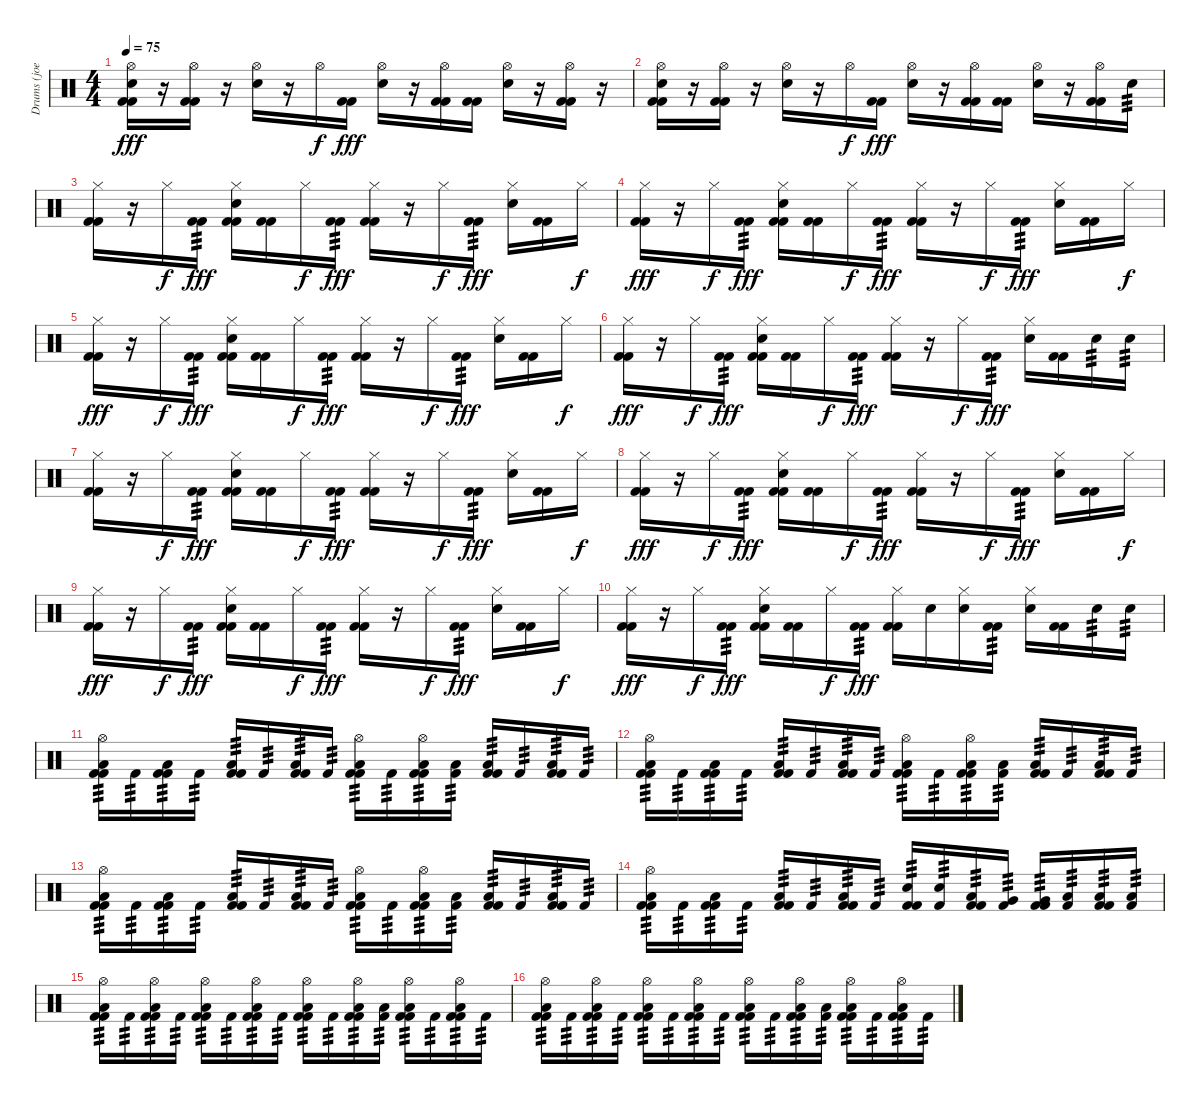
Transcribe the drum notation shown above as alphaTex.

\track ("Drums (joey)" "Drums (joe") {instrument percussion}
\staff {score}
\articulation defaults
\ts (4 4)
\tempo 75
\clef neutral
\ks c
("Hi-Hat (open)" "Electric Snare (hit)" "Kick (hit) 2" "Kick (hit) 2").16{dy fff} r.16 ("Hi-Hat (open)" "Kick (hit) 2" "Kick (hit) 2").16 r.16 ("Hi-Hat (open)" "Electric Snare (hit)").16 r.16 "Hi-Hat (open)".16{dy f} ("Kick (hit) 2" "Kick (hit) 2").16{dy fff} ("Hi-Hat (open)" "Electric Snare (hit)").16 r.16 ("Hi-Hat (open)" "Kick (hit) 2" "Kick (hit) 2").16 ("Kick (hit) 2" "Kick (hit) 2").16 ("Hi-Hat (open)" "Electric Snare (hit)").16 r.16 ("Hi-Hat (open)" "Kick (hit) 2" "Kick (hit) 2").16 r.16 |
("Hi-Hat (open)" "Electric Snare (hit)" "Kick (hit) 2" "Kick (hit) 2").16 r.16 ("Hi-Hat (open)" "Kick (hit) 2" "Kick (hit) 2").16 r.16 ("Hi-Hat (open)" "Electric Snare (hit)").16 r.16 "Hi-Hat (open)".16{dy f} ("Kick (hit) 2" "Kick (hit) 2").16{dy fff} ("Hi-Hat (open)" "Electric Snare (hit)").16 r.16 ("Hi-Hat (open)" "Kick (hit) 2" "Kick (hit) 2").16 ("Kick (hit) 2" "Kick (hit) 2").16 ("Hi-Hat (open)" "Electric Snare (hit)").16 r.16 ("Hi-Hat (open)" "Kick (hit) 2" "Kick (hit) 2").16 "Electric Snare (hit)".16{tp 3} |
("Hi-Hat (closed)" "Kick (hit) 2" "Kick (hit) 2").16 r.16 "Hi-Hat (closed)".16{dy f} ("Kick (hit) 2" "Kick (hit) 2").16{tp 3 dy fff} ("Hi-Hat (closed)" "Electric Snare (hit)" "Kick (hit) 2" "Kick (hit) 2").16 ("Kick (hit) 2" "Kick (hit) 2").16 "Hi-Hat (closed)".16{dy f} ("Kick (hit) 2" "Kick (hit) 2").16{tp 3 dy fff} ("Hi-Hat (closed)" "Kick (hit) 2" "Kick (hit) 2").16 r.16 "Hi-Hat (closed)".16{dy f} ("Kick (hit) 2" "Kick (hit) 2").16{tp 3 dy fff} ("Hi-Hat (closed)" "Electric Snare (hit)").16 ("Kick (hit) 2" "Kick (hit) 2").16 "Hi-Hat (closed)".16{dy f} |
("Hi-Hat (closed)" "Kick (hit) 2" "Kick (hit) 2").16{dy fff} r.16 "Hi-Hat (closed)".16{dy f} ("Kick (hit) 2" "Kick (hit) 2").16{tp 3 dy fff} ("Hi-Hat (closed)" "Electric Snare (hit)" "Kick (hit) 2" "Kick (hit) 2").16 ("Kick (hit) 2" "Kick (hit) 2").16 "Hi-Hat (closed)".16{dy f} ("Kick (hit) 2" "Kick (hit) 2").16{tp 3 dy fff} ("Hi-Hat (closed)" "Kick (hit) 2" "Kick (hit) 2").16 r.16 "Hi-Hat (closed)".16{dy f} ("Kick (hit) 2" "Kick (hit) 2").16{tp 3 dy fff} ("Hi-Hat (closed)" "Electric Snare (hit)").16 ("Kick (hit) 2" "Kick (hit) 2").16 "Hi-Hat (closed)".16{dy f} |
("Hi-Hat (closed)" "Kick (hit) 2" "Kick (hit) 2").16{dy fff} r.16 "Hi-Hat (closed)".16{dy f} ("Kick (hit) 2" "Kick (hit) 2").16{tp 3 dy fff} ("Hi-Hat (closed)" "Electric Snare (hit)" "Kick (hit) 2" "Kick (hit) 2").16 ("Kick (hit) 2" "Kick (hit) 2").16 "Hi-Hat (closed)".16{dy f} ("Kick (hit) 2" "Kick (hit) 2").16{tp 3 dy fff} ("Hi-Hat (closed)" "Kick (hit) 2" "Kick (hit) 2").16 r.16 "Hi-Hat (closed)".16{dy f} ("Kick (hit) 2" "Kick (hit) 2").16{tp 3 dy fff} ("Hi-Hat (closed)" "Electric Snare (hit)").16 ("Kick (hit) 2" "Kick (hit) 2").16 "Hi-Hat (closed)".16{dy f} |
("Hi-Hat (closed)" "Kick (hit) 2" "Kick (hit) 2").16{dy fff} r.16 "Hi-Hat (closed)".16{dy f} ("Kick (hit) 2" "Kick (hit) 2").16{tp 3 dy fff} ("Hi-Hat (closed)" "Electric Snare (hit)" "Kick (hit) 2" "Kick (hit) 2").16 ("Kick (hit) 2" "Kick (hit) 2").16 "Hi-Hat (closed)".16{dy f} ("Kick (hit) 2" "Kick (hit) 2").16{tp 3 dy fff} ("Hi-Hat (closed)" "Kick (hit) 2" "Kick (hit) 2").16 r.16 "Hi-Hat (closed)".16{dy f} ("Kick (hit) 2" "Kick (hit) 2").16{tp 3 dy fff} ("Hi-Hat (closed)" "Electric Snare (hit)").16 ("Kick (hit) 2" "Kick (hit) 2").16 "Electric Snare (hit)".16{tp 3} "Electric Snare (hit)".16{tp 3} |
("Hi-Hat (closed)" "Kick (hit) 2" "Kick (hit) 2").16 r.16 "Hi-Hat (closed)".16{dy f} ("Kick (hit) 2" "Kick (hit) 2").16{tp 3 dy fff} ("Hi-Hat (closed)" "Electric Snare (hit)" "Kick (hit) 2" "Kick (hit) 2").16 ("Kick (hit) 2" "Kick (hit) 2").16 "Hi-Hat (closed)".16{dy f} ("Kick (hit) 2" "Kick (hit) 2").16{tp 3 dy fff} ("Hi-Hat (closed)" "Kick (hit) 2" "Kick (hit) 2").16 r.16 "Hi-Hat (closed)".16{dy f} ("Kick (hit) 2" "Kick (hit) 2").16{tp 3 dy fff} ("Hi-Hat (closed)" "Electric Snare (hit)").16 ("Kick (hit) 2" "Kick (hit) 2").16 "Hi-Hat (closed)".16{dy f} |
("Hi-Hat (closed)" "Kick (hit) 2" "Kick (hit) 2").16{dy fff} r.16 "Hi-Hat (closed)".16{dy f} ("Kick (hit) 2" "Kick (hit) 2").16{tp 3 dy fff} ("Hi-Hat (closed)" "Electric Snare (hit)" "Kick (hit) 2" "Kick (hit) 2").16 ("Kick (hit) 2" "Kick (hit) 2").16 "Hi-Hat (closed)".16{dy f} ("Kick (hit) 2" "Kick (hit) 2").16{tp 3 dy fff} ("Hi-Hat (closed)" "Kick (hit) 2" "Kick (hit) 2").16 r.16 "Hi-Hat (closed)".16{dy f} ("Kick (hit) 2" "Kick (hit) 2").16{tp 3 dy fff} ("Hi-Hat (closed)" "Electric Snare (hit)").16 ("Kick (hit) 2" "Kick (hit) 2").16 "Hi-Hat (closed)".16{dy f} |
("Hi-Hat (closed)" "Kick (hit) 2" "Kick (hit) 2").16{dy fff} r.16 "Hi-Hat (closed)".16{dy f} ("Kick (hit) 2" "Kick (hit) 2").16{tp 3 dy fff} ("Hi-Hat (closed)" "Electric Snare (hit)" "Kick (hit) 2" "Kick (hit) 2").16 ("Kick (hit) 2" "Kick (hit) 2").16 "Hi-Hat (closed)".16{dy f} ("Kick (hit) 2" "Kick (hit) 2").16{tp 3 dy fff} ("Hi-Hat (closed)" "Kick (hit) 2" "Kick (hit) 2").16 r.16 "Hi-Hat (closed)".16{dy f} ("Kick (hit) 2" "Kick (hit) 2").16{tp 3 dy fff} ("Hi-Hat (closed)" "Electric Snare (hit)").16 ("Kick (hit) 2" "Kick (hit) 2").16 "Hi-Hat (closed)".16{dy f} |
("Hi-Hat (closed)" "Kick (hit) 2" "Kick (hit) 2").16{dy fff} r.16 "Hi-Hat (closed)".16{dy f} ("Kick (hit) 2" "Kick (hit) 2").16{tp 3 dy fff} ("Hi-Hat (closed)" "Electric Snare (hit)" "Kick (hit) 2" "Kick (hit) 2").16 ("Kick (hit) 2" "Kick (hit) 2").16 "Hi-Hat (closed)".16{dy f} ("Kick (hit) 2" "Kick (hit) 2").16{tp 3 dy fff} ("Hi-Hat (closed)" "Kick (hit) 2" "Kick (hit) 2").16 "Electric Snare (hit)".16 ("Hi-Hat (closed)" "Electric Snare (hit)").16 ("Kick (hit) 2" "Kick (hit) 2").16{tp 3} ("Hi-Hat (closed)" "Electric Snare (hit)").16 ("Kick (hit) 2" "Kick (hit) 2").16 "Electric Snare (hit)".16{tp 3} "Electric Snare (hit)".16{tp 3} |
("Hi-Hat (open)" "Low Floor Tom (hit)" "Kick (hit) 2" "Kick (hit) 2").16{tp 3} "Kick (hit) 2".16{tp 3} ("Low Floor Tom (hit)" "Kick (hit) 2" "Kick (hit) 2").16{tp 3} "Kick (hit) 2".16{tp 3} ("Low Floor Tom (hit)" "Kick (hit) 2" "Kick (hit) 2").16{tp 3} "Kick (hit) 2".16{tp 3} ("Low Floor Tom (hit)" "Kick (hit) 2" "Kick (hit) 2").16{tp 3} "Kick (hit) 2".16{tp 3} ("Hi-Hat (open)" "Low Floor Tom (hit)" "Kick (hit) 2" "Kick (hit) 2").16{tp 3} "Kick (hit) 2".16{tp 3} ("Hi-Hat (open)" "Low Floor Tom (hit)" "Kick (hit) 2" "Kick (hit) 2").16{tp 3} ("Low Floor Tom (hit)" "Kick (hit) 2").16{tp 3} ("Low Floor Tom (hit)" "Kick (hit) 2" "Kick (hit) 2").16{tp 3} "Kick (hit) 2".16{tp 3} ("Low Floor Tom (hit)" "Kick (hit) 2" "Kick (hit) 2").16{tp 3} "Kick (hit) 2".16{tp 3} |
("Hi-Hat (open)" "Low Floor Tom (hit)" "Kick (hit) 2" "Kick (hit) 2").16{tp 3} "Kick (hit) 2".16{tp 3} ("Low Floor Tom (hit)" "Kick (hit) 2" "Kick (hit) 2").16{tp 3} "Kick (hit) 2".16{tp 3} ("Low Floor Tom (hit)" "Kick (hit) 2" "Kick (hit) 2").16{tp 3} "Kick (hit) 2".16{tp 3} ("Low Floor Tom (hit)" "Kick (hit) 2" "Kick (hit) 2").16{tp 3} "Kick (hit) 2".16{tp 3} ("Hi-Hat (open)" "Low Floor Tom (hit)" "Kick (hit) 2" "Kick (hit) 2").16{tp 3} "Kick (hit) 2".16{tp 3} ("Hi-Hat (open)" "Low Floor Tom (hit)" "Kick (hit) 2" "Kick (hit) 2").16{tp 3} ("Low Floor Tom (hit)" "Kick (hit) 2").16{tp 3} ("Low Floor Tom (hit)" "Kick (hit) 2" "Kick (hit) 2").16{tp 3} "Kick (hit) 2".16{tp 3} ("Low Floor Tom (hit)" "Kick (hit) 2" "Kick (hit) 2").16{tp 3} "Kick (hit) 2".16{tp 3} |
("Hi-Hat (open)" "Low Floor Tom (hit)" "Kick (hit) 2" "Kick (hit) 2").16{tp 3} "Kick (hit) 2".16{tp 3} ("Low Floor Tom (hit)" "Kick (hit) 2" "Kick (hit) 2").16{tp 3} "Kick (hit) 2".16{tp 3} ("Low Floor Tom (hit)" "Kick (hit) 2" "Kick (hit) 2").16{tp 3} "Kick (hit) 2".16{tp 3} ("Low Floor Tom (hit)" "Kick (hit) 2" "Kick (hit) 2").16{tp 3} "Kick (hit) 2".16{tp 3} ("Hi-Hat (open)" "Low Floor Tom (hit)" "Kick (hit) 2" "Kick (hit) 2").16{tp 3} "Kick (hit) 2".16{tp 3} ("Hi-Hat (open)" "Low Floor Tom (hit)" "Kick (hit) 2" "Kick (hit) 2").16{tp 3} ("Low Floor Tom (hit)" "Kick (hit) 2").16{tp 3} ("Low Floor Tom (hit)" "Kick (hit) 2" "Kick (hit) 2").16{tp 3} "Kick (hit) 2".16{tp 3} ("Low Floor Tom (hit)" "Kick (hit) 2" "Kick (hit) 2").16{tp 3} "Kick (hit) 2".16{tp 3} |
("Hi-Hat (open)" "Low Floor Tom (hit)" "Kick (hit) 2" "Kick (hit) 2").16{tp 3} "Kick (hit) 2".16{tp 3} ("Low Floor Tom (hit)" "Kick (hit) 2" "Kick (hit) 2").16{tp 3} "Kick (hit) 2".16{tp 3} ("Low Floor Tom (hit)" "Kick (hit) 2" "Kick (hit) 2").16{tp 3} "Kick (hit) 2".16{tp 3} ("Low Floor Tom (hit)" "Kick (hit) 2" "Kick (hit) 2").16{tp 3} "Kick (hit) 2".16{tp 3} ("Electric Snare (hit)" "Kick (hit) 2" "Kick (hit) 2").16{tp 3} ("Electric Snare (hit)" "Kick (hit) 2").16{tp 3} ("Low Tom (hit)" "Kick (hit) 2" "Kick (hit) 2").16{tp 3} ("Very Low Tom (hit)" "Kick (hit) 2").16{tp 3} ("Very Low Tom (hit)" "Kick (hit) 2" "Kick (hit) 2").16{tp 3} ("Low Floor Tom (hit)" "Kick (hit) 2").16{tp 3} ("Low Floor Tom (hit)" "Kick (hit) 2" "Kick (hit) 2").16{tp 3} ("Low Floor Tom (hit)" "Kick (hit) 2").16{tp 3} |
("Hi-Hat (open)" "Low Floor Tom (hit)" "Kick (hit) 2" "Kick (hit) 2").16{tp 3} "Kick (hit) 2".16{tp 3} ("Hi-Hat (open)" "Low Floor Tom (hit)" "Kick (hit) 2" "Kick (hit) 2").16{tp 3} "Kick (hit) 2".16{tp 3} ("Hi-Hat (open)" "Low Floor Tom (hit)" "Kick (hit) 2" "Kick (hit) 2").16{tp 3} "Kick (hit) 2".16{tp 3} ("Hi-Hat (open)" "Low Floor Tom (hit)" "Kick (hit) 2" "Kick (hit) 2").16{tp 3} "Kick (hit) 2".16{tp 3} ("Hi-Hat (open)" "Low Floor Tom (hit)" "Kick (hit) 2" "Kick (hit) 2").16{tp 3} "Kick (hit) 2".16{tp 3} ("Hi-Hat (open)" "Low Floor Tom (hit)" "Kick (hit) 2" "Kick (hit) 2").16{tp 3} ("Low Floor Tom (hit)" "Kick (hit) 2").16{tp 3} ("Hi-Hat (open)" "Low Floor Tom (hit)" "Kick (hit) 2" "Kick (hit) 2").16{tp 3} "Kick (hit) 2".16{tp 3} ("Hi-Hat (open)" "Low Floor Tom (hit)" "Kick (hit) 2" "Kick (hit) 2").16{tp 3} "Kick (hit) 2".16{tp 3} |
("Hi-Hat (open)" "Low Floor Tom (hit)" "Kick (hit) 2" "Kick (hit) 2").16{tp 3} "Kick (hit) 2".16{tp 3} ("Hi-Hat (open)" "Low Floor Tom (hit)" "Kick (hit) 2" "Kick (hit) 2").16{tp 3} "Kick (hit) 2".16{tp 3} ("Hi-Hat (open)" "Low Floor Tom (hit)" "Kick (hit) 2" "Kick (hit) 2").16{tp 3} "Kick (hit) 2".16{tp 3} ("Hi-Hat (open)" "Low Floor Tom (hit)" "Kick (hit) 2" "Kick (hit) 2").16{tp 3} "Kick (hit) 2".16{tp 3} ("Hi-Hat (open)" "Low Floor Tom (hit)" "Kick (hit) 2" "Kick (hit) 2").16{tp 3} "Kick (hit) 2".16{tp 3} ("Hi-Hat (open)" "Low Floor Tom (hit)" "Kick (hit) 2" "Kick (hit) 2").16{tp 3} ("Low Floor Tom (hit)" "Kick (hit) 2").16{tp 3} ("Hi-Hat (open)" "Low Floor Tom (hit)" "Kick (hit) 2" "Kick (hit) 2").16{tp 3} "Kick (hit) 2".16{tp 3} ("Hi-Hat (open)" "Low Floor Tom (hit)" "Kick (hit) 2" "Kick (hit) 2").16{tp 3} "Kick (hit) 2".16{tp 3}
